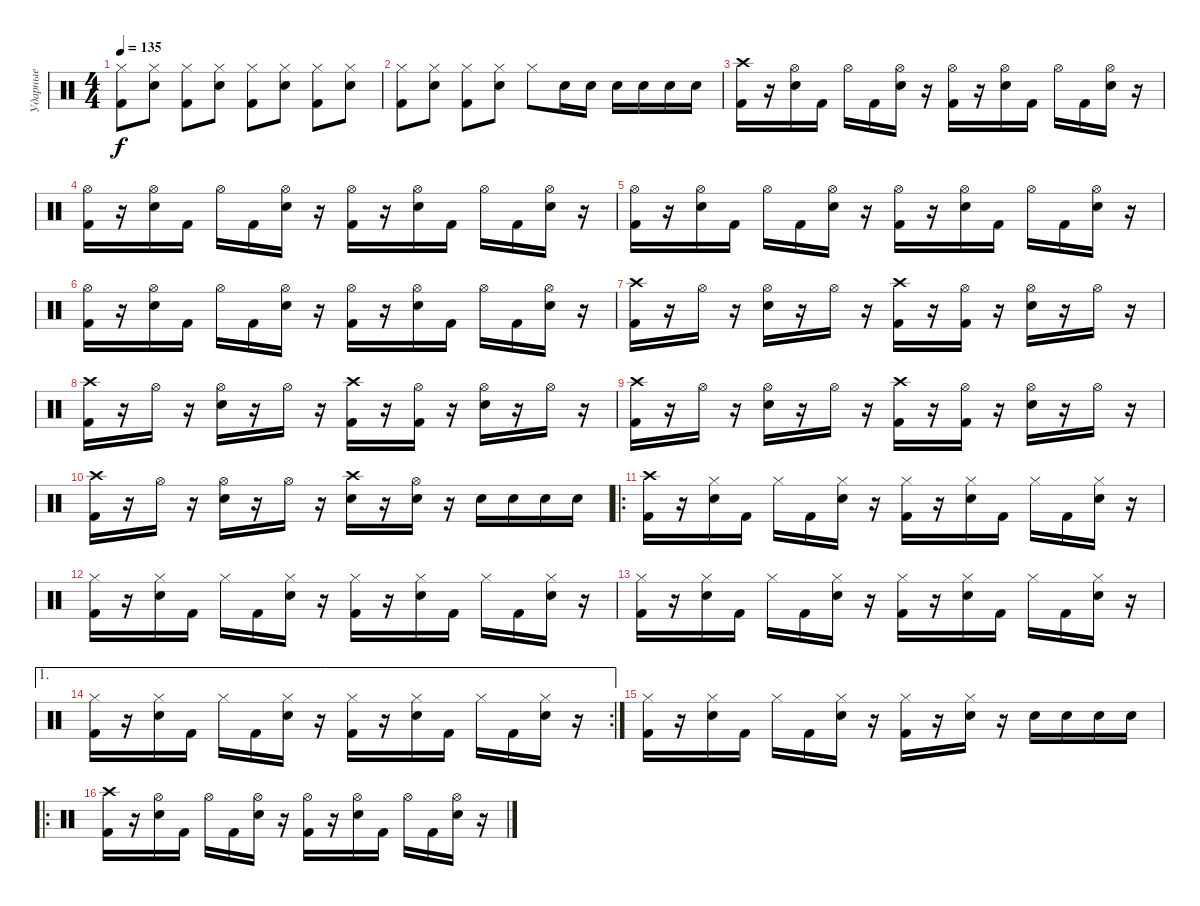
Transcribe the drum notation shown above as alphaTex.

\track ("Ударные" "Ударные") {instrument percussion}
\staff {score}
\articulation defaults
\ts (4 4)
\tempo 135
\clef neutral
\ks c
("Hi-Hat (closed)" "Kick (hit) 2").8{dy f} ("Hi-Hat (closed)" "Electric Snare (hit)").8 ("Hi-Hat (closed)" "Kick (hit) 2").8 ("Hi-Hat (closed)" "Electric Snare (hit)").8 ("Hi-Hat (closed)" "Kick (hit) 2").8 ("Hi-Hat (closed)" "Electric Snare (hit)").8 ("Hi-Hat (closed)" "Kick (hit) 2").8 ("Hi-Hat (closed)" "Electric Snare (hit)").8 |
("Hi-Hat (closed)" "Kick (hit) 2").8 ("Hi-Hat (closed)" "Electric Snare (hit)").8 ("Hi-Hat (closed)" "Kick (hit) 2").8 ("Hi-Hat (closed)" "Electric Snare (hit)").8 "Hi-Hat (closed)".8 "Electric Snare (hit)".16 "Electric Snare (hit)".16 "Electric Snare (hit)".16 "Electric Snare (hit)".16 "Electric Snare (hit)".16 "Electric Snare (hit)".16 |
("Crash high (hit)" "Kick (hit) 2").16 r.16 ("Hi-Hat (open)" "Electric Snare (hit)").16 "Kick (hit) 2".16 "Hi-Hat (open)".16 "Kick (hit) 2".16 ("Hi-Hat (open)" "Electric Snare (hit)").16 r.16 ("Hi-Hat (open)" "Kick (hit) 2").16 r.16 ("Hi-Hat (open)" "Electric Snare (hit)").16 "Kick (hit) 2".16 "Hi-Hat (open)".16 "Kick (hit) 2".16 ("Hi-Hat (open)" "Electric Snare (hit)").16 r.16 |
("Hi-Hat (open)" "Kick (hit) 2").16 r.16 ("Hi-Hat (open)" "Electric Snare (hit)").16 "Kick (hit) 2".16 "Hi-Hat (open)".16 "Kick (hit) 2".16 ("Hi-Hat (open)" "Electric Snare (hit)").16 r.16 ("Hi-Hat (open)" "Kick (hit) 2").16 r.16 ("Hi-Hat (open)" "Electric Snare (hit)").16 "Kick (hit) 2".16 "Hi-Hat (open)".16 "Kick (hit) 2".16 ("Hi-Hat (open)" "Electric Snare (hit)").16 r.16 |
("Hi-Hat (open)" "Kick (hit) 2").16 r.16 ("Hi-Hat (open)" "Electric Snare (hit)").16 "Kick (hit) 2".16 "Hi-Hat (open)".16 "Kick (hit) 2".16 ("Hi-Hat (open)" "Electric Snare (hit)").16 r.16 ("Hi-Hat (open)" "Kick (hit) 2").16 r.16 ("Hi-Hat (open)" "Electric Snare (hit)").16 "Kick (hit) 2".16 "Hi-Hat (open)".16 "Kick (hit) 2".16 ("Hi-Hat (open)" "Electric Snare (hit)").16 r.16 |
("Hi-Hat (open)" "Kick (hit) 2").16 r.16 ("Hi-Hat (open)" "Electric Snare (hit)").16 "Kick (hit) 2".16 "Hi-Hat (open)".16 "Kick (hit) 2".16 ("Hi-Hat (open)" "Electric Snare (hit)").16 r.16 ("Hi-Hat (open)" "Kick (hit) 2").16 r.16 ("Hi-Hat (open)" "Electric Snare (hit)").16 "Kick (hit) 2".16 "Hi-Hat (open)".16 "Kick (hit) 2".16 ("Hi-Hat (open)" "Electric Snare (hit)").16 r.16 |
("Crash high (hit)" "Kick (hit) 2").16 r.16 "Hi-Hat (open)".16 r.16 ("Hi-Hat (open)" "Electric Snare (hit)").16 r.16 "Hi-Hat (open)".16 r.16 ("Crash high (hit)" "Kick (hit) 2").16 r.16 ("Hi-Hat (open)" "Kick (hit) 2").16 r.16 ("Hi-Hat (open)" "Electric Snare (hit)").16 r.16 "Hi-Hat (open)".16 r.16 |
("Crash high (hit)" "Kick (hit) 2").16 r.16 "Hi-Hat (open)".16 r.16 ("Hi-Hat (open)" "Electric Snare (hit)").16 r.16 "Hi-Hat (open)".16 r.16 ("Crash high (hit)" "Kick (hit) 2").16 r.16 ("Hi-Hat (open)" "Kick (hit) 2").16 r.16 ("Hi-Hat (open)" "Electric Snare (hit)").16 r.16 "Hi-Hat (open)".16 r.16 |
("Crash high (hit)" "Kick (hit) 2").16 r.16 "Hi-Hat (open)".16 r.16 ("Hi-Hat (open)" "Electric Snare (hit)").16 r.16 "Hi-Hat (open)".16 r.16 ("Crash high (hit)" "Kick (hit) 2").16 r.16 ("Hi-Hat (open)" "Kick (hit) 2").16 r.16 ("Hi-Hat (open)" "Electric Snare (hit)").16 r.16 "Hi-Hat (open)".16 r.16 |
("Crash high (hit)" "Kick (hit) 2").16 r.16 "Hi-Hat (open)".16 r.16 ("Hi-Hat (open)" "Electric Snare (hit)").16 r.16 "Hi-Hat (open)".16 r.16 ("Crash high (hit)" "Electric Snare (hit)").16 r.16 ("Hi-Hat (open)" "Electric Snare (hit)").16 r.16 "Electric Snare (hit)".16 "Electric Snare (hit)".16 "Electric Snare (hit)".16 "Electric Snare (hit)".16 |
\ro
("Crash high (hit)" "Kick (hit) 2").16 r.16 ("Hi-Hat (closed)" "Electric Snare (hit)").16 "Kick (hit) 2".16 "Hi-Hat (closed)".16 "Kick (hit) 2".16 ("Hi-Hat (closed)" "Electric Snare (hit)").16 r.16 ("Hi-Hat (closed)" "Kick (hit) 2").16 r.16 ("Hi-Hat (closed)" "Electric Snare (hit)").16 "Kick (hit) 2".16 "Hi-Hat (closed)".16 "Kick (hit) 2".16 ("Hi-Hat (closed)" "Electric Snare (hit)").16 r.16 |
("Hi-Hat (closed)" "Kick (hit) 2").16 r.16 ("Hi-Hat (closed)" "Electric Snare (hit)").16 "Kick (hit) 2".16 "Hi-Hat (closed)".16 "Kick (hit) 2".16 ("Hi-Hat (closed)" "Electric Snare (hit)").16 r.16 ("Hi-Hat (closed)" "Kick (hit) 2").16 r.16 ("Hi-Hat (closed)" "Electric Snare (hit)").16 "Kick (hit) 2".16 "Hi-Hat (closed)".16 "Kick (hit) 2".16 ("Hi-Hat (closed)" "Electric Snare (hit)").16 r.16 |
("Hi-Hat (closed)" "Kick (hit) 2").16 r.16 ("Hi-Hat (closed)" "Electric Snare (hit)").16 "Kick (hit) 2".16 "Hi-Hat (closed)".16 "Kick (hit) 2".16 ("Hi-Hat (closed)" "Electric Snare (hit)").16 r.16 ("Hi-Hat (closed)" "Kick (hit) 2").16 r.16 ("Hi-Hat (closed)" "Electric Snare (hit)").16 "Kick (hit) 2".16 "Hi-Hat (closed)".16 "Kick (hit) 2".16 ("Hi-Hat (closed)" "Electric Snare (hit)").16 r.16 |
\ae 1
\rc 2
("Hi-Hat (closed)" "Kick (hit) 2").16 r.16 ("Hi-Hat (closed)" "Electric Snare (hit)").16 "Kick (hit) 2".16 "Hi-Hat (closed)".16 "Kick (hit) 2".16 ("Hi-Hat (closed)" "Electric Snare (hit)").16 r.16 ("Hi-Hat (closed)" "Kick (hit) 2").16 r.16 ("Hi-Hat (closed)" "Electric Snare (hit)").16 "Kick (hit) 2".16 "Hi-Hat (closed)".16 "Kick (hit) 2".16 ("Hi-Hat (closed)" "Electric Snare (hit)").16 r.16 |
("Hi-Hat (closed)" "Kick (hit) 2").16 r.16 ("Hi-Hat (closed)" "Electric Snare (hit)").16 "Kick (hit) 2".16 "Hi-Hat (closed)".16 "Kick (hit) 2".16 ("Hi-Hat (closed)" "Electric Snare (hit)").16 r.16 ("Hi-Hat (closed)" "Kick (hit) 2").16 r.16 ("Hi-Hat (closed)" "Electric Snare (hit)").16 r.16 "Electric Snare (hit)".16 "Electric Snare (hit)".16 "Electric Snare (hit)".16 "Electric Snare (hit)".16 |
\ro
("Crash high (hit)" "Kick (hit) 2").16 r.16 ("Hi-Hat (open)" "Electric Snare (hit)").16 "Kick (hit) 2".16 "Hi-Hat (open)".16 "Kick (hit) 2".16 ("Hi-Hat (open)" "Electric Snare (hit)").16 r.16 ("Hi-Hat (open)" "Kick (hit) 2").16 r.16 ("Hi-Hat (open)" "Electric Snare (hit)").16 "Kick (hit) 2".16 "Hi-Hat (open)".16 "Kick (hit) 2".16 ("Hi-Hat (open)" "Electric Snare (hit)").16 r.16
